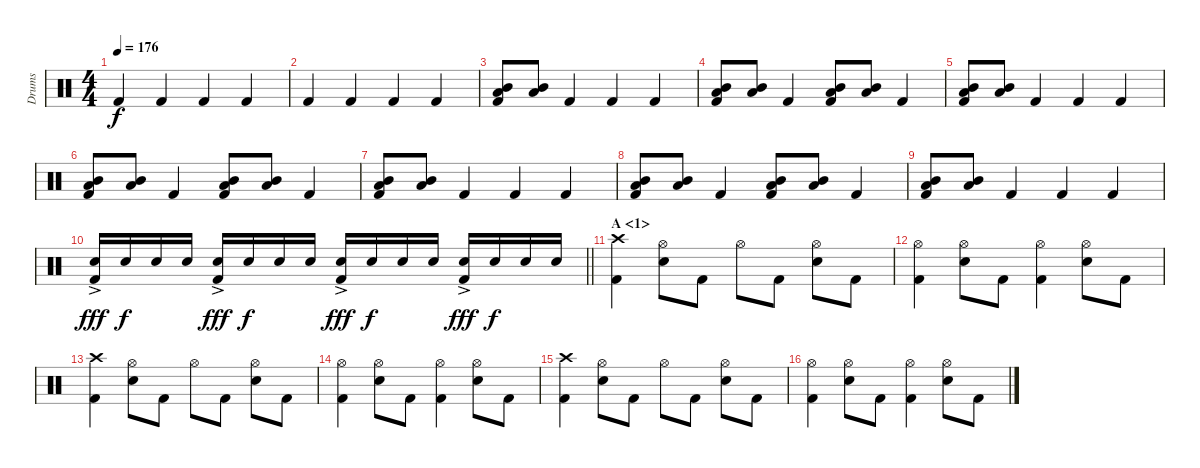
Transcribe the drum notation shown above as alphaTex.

\track ("Drums" "Drums") {instrument percussion}
\staff {score}
\articulation defaults
\ts (4 4)
\tempo 176
\clef neutral
\ks c "Kick (hit) 2".4{dy f} "Kick (hit) 2".4 "Kick (hit) 2".4 "Kick (hit) 2".4
|
"Kick (hit) 2".4 "Kick (hit) 2".4 "Kick (hit) 2".4 "Kick (hit) 2".4 |
("Mid Tom (hit)" "Low Tom (hit)" "Kick (hit) 2").8 ("Mid Tom (hit)" "Low Tom (hit)").8 "Kick (hit) 2".4 "Kick (hit) 2".4 "Kick (hit) 2".4 |
("Mid Tom (hit)" "Low Tom (hit)" "Kick (hit) 2").8 ("Mid Tom (hit)" "Low Tom (hit)").8 "Kick (hit) 2".4 ("Mid Tom (hit)" "Low Tom (hit)" "Kick (hit) 2").8 ("Mid Tom (hit)" "Low Tom (hit)").8 "Kick (hit) 2".4 |
("Mid Tom (hit)" "Low Tom (hit)" "Kick (hit) 2").8 ("Mid Tom (hit)" "Low Tom (hit)").8 "Kick (hit) 2".4 "Kick (hit) 2".4 "Kick (hit) 2".4 |
("Mid Tom (hit)" "Low Tom (hit)" "Kick (hit) 2").8 ("Mid Tom (hit)" "Low Tom (hit)").8 "Kick (hit) 2".4 ("Mid Tom (hit)" "Low Tom (hit)" "Kick (hit) 2").8 ("Mid Tom (hit)" "Low Tom (hit)").8 "Kick (hit) 2".4 |
("Mid Tom (hit)" "Low Tom (hit)" "Kick (hit) 2").8 ("Mid Tom (hit)" "Low Tom (hit)").8 "Kick (hit) 2".4 "Kick (hit) 2".4 "Kick (hit) 2".4 |
("Mid Tom (hit)" "Low Tom (hit)" "Kick (hit) 2").8 ("Mid Tom (hit)" "Low Tom (hit)").8 "Kick (hit) 2".4 ("Mid Tom (hit)" "Low Tom (hit)" "Kick (hit) 2").8 ("Mid Tom (hit)" "Low Tom (hit)").8 "Kick (hit) 2".4 |
("Mid Tom (hit)" "Low Tom (hit)" "Kick (hit) 2").8 ("Mid Tom (hit)" "Low Tom (hit)").8 "Kick (hit) 2".4 "Kick (hit) 2".4 "Kick (hit) 2".4 |
\barLineRight lightlight
("Electric Snare (hit)"{ac} "Kick (hit) 2").16{dy fff} "Electric Snare (hit)".16{dy f} "Electric Snare (hit)".16 "Electric Snare (hit)".16 ("Electric Snare (hit)"{ac} "Kick (hit) 2").16{dy fff} "Electric Snare (hit)".16{dy f} "Electric Snare (hit)".16 "Electric Snare (hit)".16 ("Electric Snare (hit)"{ac} "Kick (hit) 2").16{dy fff} "Electric Snare (hit)".16{dy f} "Electric Snare (hit)".16 "Electric Snare (hit)".16 ("Electric Snare (hit)"{ac} "Kick (hit) 2").16{dy fff} "Electric Snare (hit)".16{dy f} "Electric Snare (hit)".16 "Electric Snare (hit)".16 |
\section ("" "A <1>")
("Crash high (hit)" "Kick (hit) 2").4 ("Hi-Hat (open)" "Electric Snare (hit)").8 "Kick (hit) 2".8 "Hi-Hat (open)".8 "Kick (hit) 2".8 ("Hi-Hat (open)" "Electric Snare (hit)").8 "Kick (hit) 2".8 |
("Hi-Hat (open)" "Kick (hit) 2").4 ("Hi-Hat (open)" "Electric Snare (hit)").8 "Kick (hit) 2".8 ("Hi-Hat (open)" "Kick (hit) 2").4 ("Hi-Hat (open)" "Electric Snare (hit)").8 "Kick (hit) 2".8 |
("Crash high (hit)" "Kick (hit) 2").4 ("Hi-Hat (open)" "Electric Snare (hit)").8 "Kick (hit) 2".8 "Hi-Hat (open)".8 "Kick (hit) 2".8 ("Hi-Hat (open)" "Electric Snare (hit)").8 "Kick (hit) 2".8 |
("Hi-Hat (open)" "Kick (hit) 2").4 ("Hi-Hat (open)" "Electric Snare (hit)").8 "Kick (hit) 2".8 ("Hi-Hat (open)" "Kick (hit) 2").4 ("Hi-Hat (open)" "Electric Snare (hit)").8 "Kick (hit) 2".8 |
("Crash high (hit)" "Kick (hit) 2").4 ("Hi-Hat (open)" "Electric Snare (hit)").8 "Kick (hit) 2".8 "Hi-Hat (open)".8 "Kick (hit) 2".8 ("Hi-Hat (open)" "Electric Snare (hit)").8 "Kick (hit) 2".8 |
("Hi-Hat (open)" "Kick (hit) 2").4 ("Hi-Hat (open)" "Electric Snare (hit)").8 "Kick (hit) 2".8 ("Hi-Hat (open)" "Kick (hit) 2").4 ("Hi-Hat (open)" "Electric Snare (hit)").8 "Kick (hit) 2".8
